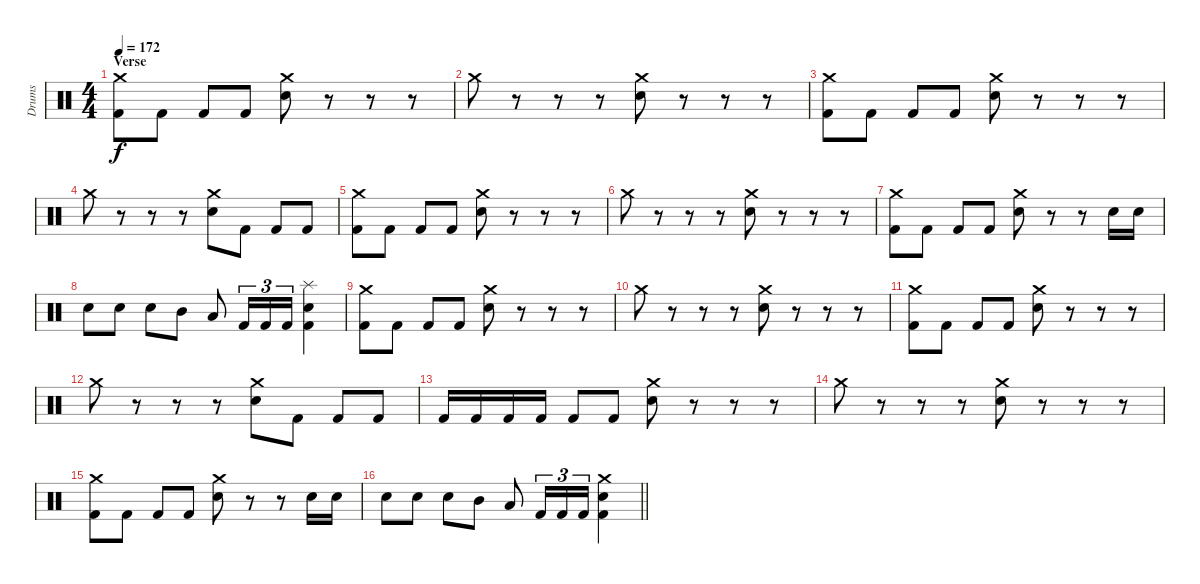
\track ("Drums" "Drums") {instrument percussion}
\staff {score}
\articulation defaults
\ts (4 4)
\section ("" "Verse")
\tempo 172
\clef neutral
\ks c
("Crash medium (hit)" "Kick (hit) 2").8{dy f} "Kick (hit) 2".8 "Kick (hit) 2".8 "Kick (hit) 2".8 ("Crash medium (hit)" "Electric Snare (hit)").8 r.8 r.8 r.8 |
"Crash medium (hit)".8 r.8 r.8 r.8 ("Crash medium (hit)" "Electric Snare (hit)").8 r.8 r.8 r.8 |
("Crash medium (hit)" "Kick (hit) 2").8 "Kick (hit) 2".8 "Kick (hit) 2".8 "Kick (hit) 2".8 ("Crash medium (hit)" "Electric Snare (hit)").8 r.8 r.8 r.8 |
"Crash medium (hit)".8 r.8 r.8 r.8 ("Crash medium (hit)" "Electric Snare (hit)").8 "Kick (hit) 2".8 "Kick (hit) 2".8 "Kick (hit) 2".8 |
("Crash medium (hit)" "Kick (hit) 2").8 "Kick (hit) 2".8 "Kick (hit) 2".8 "Kick (hit) 2".8 ("Crash medium (hit)" "Electric Snare (hit)").8 r.8 r.8 r.8 |
"Crash medium (hit)".8 r.8 r.8 r.8 ("Crash medium (hit)" "Electric Snare (hit)").8 r.8 r.8 r.8 |
("Crash medium (hit)" "Kick (hit) 2").8 "Kick (hit) 2".8 "Kick (hit) 2".8 "Kick (hit) 2".8 ("Crash medium (hit)" "Electric Snare (hit)").8 r.8 r.8 "Electric Snare (hit)".16 "Electric Snare (hit)".16 |
"Electric Snare (hit)".8 "Electric Snare (hit)".8 "Electric Snare (hit)".8 "Mid Tom (hit)".8 "Low Tom (hit)".8 "Kick (hit) 2".16{tu (3 2)} "Kick (hit) 2".16{tu (3 2)} "Kick (hit) 2".16{tu (3 2)} ("Splash (hit)" "Electric Snare (hit)" "Kick (hit) 2").4 |
("Crash medium (hit)" "Kick (hit) 2").8 "Kick (hit) 2".8 "Kick (hit) 2".8 "Kick (hit) 2".8 ("Crash medium (hit)" "Electric Snare (hit)").8 r.8 r.8 r.8 |
"Crash medium (hit)".8 r.8 r.8 r.8 ("Crash medium (hit)" "Electric Snare (hit)").8 r.8 r.8 r.8 |
("Crash medium (hit)" "Kick (hit) 2").8 "Kick (hit) 2".8 "Kick (hit) 2".8 "Kick (hit) 2".8 ("Crash medium (hit)" "Electric Snare (hit)").8 r.8 r.8 r.8 |
"Crash medium (hit)".8 r.8 r.8 r.8 ("Crash medium (hit)" "Electric Snare (hit)").8 "Kick (hit) 2".8 "Kick (hit) 2".8 "Kick (hit) 2".8 |
"Kick (hit) 2".16 "Kick (hit) 2".16 "Kick (hit) 2".16 "Kick (hit) 2".16 "Kick (hit) 2".8 "Kick (hit) 2".8 ("Crash medium (hit)" "Electric Snare (hit)").8 r.8 r.8 r.8 |
"Crash medium (hit)".8 r.8 r.8 r.8 ("Crash medium (hit)" "Electric Snare (hit)").8 r.8 r.8 r.8 |
("Crash medium (hit)" "Kick (hit) 2").8 "Kick (hit) 2".8 "Kick (hit) 2".8 "Kick (hit) 2".8 ("Crash medium (hit)" "Electric Snare (hit)").8 r.8 r.8 "Electric Snare (hit)".16 "Electric Snare (hit)".16 |
\barLineRight lightlight "Electric Snare (hit)".8 "Electric Snare (hit)".8 "Electric Snare (hit)".8 "Mid Tom (hit)".8 "Low Tom (hit)".8 "Kick (hit) 2".16{tu (3 2)} "Kick (hit) 2".16{tu (3 2)} "Kick (hit) 2".16{tu (3 2)}
("Crash medium (hit)" "Electric Snare (hit)" "Kick (hit) 2").4
